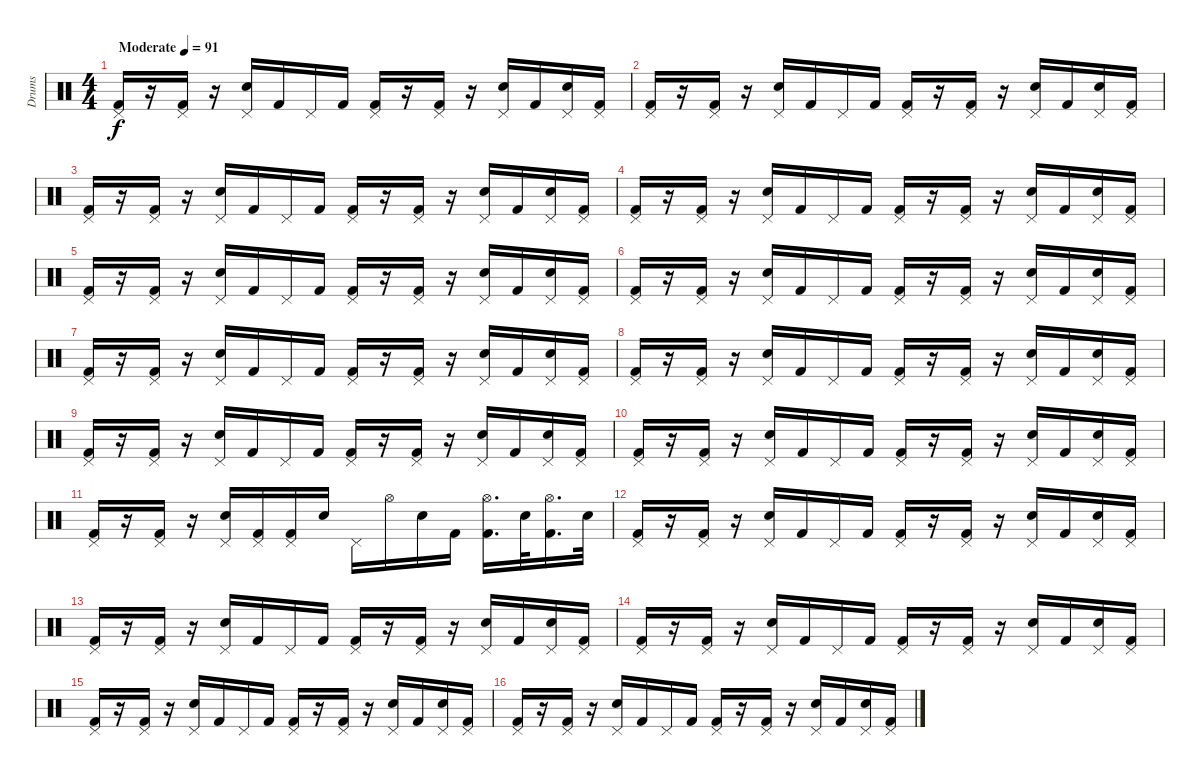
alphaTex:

\track ("Drums" "Drums") {instrument percussion}
\staff {score}
\articulation defaults
\ts (4 4)
\tempo (91 "Moderate")
\clef neutral
\ks c
("Pedal Hi-Hat (hit)" "Kick (hit) 2").16{dy f} r.16 ("Pedal Hi-Hat (hit)" "Kick (hit) 2").16 r.16 ("Pedal Hi-Hat (hit)" "Snare (hit) 2").16 "Kick (hit) 2".16 "Pedal Hi-Hat (hit)".16 "Kick (hit) 2".16 ("Pedal Hi-Hat (hit)" "Kick (hit) 2").16 r.16 ("Pedal Hi-Hat (hit)" "Kick (hit) 2").16 r.16 ("Pedal Hi-Hat (hit)" "Snare (hit) 2").16 "Kick (hit) 2".16 ("Pedal Hi-Hat (hit)" "Snare (hit) 2").16 ("Pedal Hi-Hat (hit)" "Kick (hit) 2").16 |
("Pedal Hi-Hat (hit)" "Kick (hit) 2").16 r.16 ("Pedal Hi-Hat (hit)" "Kick (hit) 2").16 r.16 ("Pedal Hi-Hat (hit)" "Snare (hit) 2").16 "Kick (hit) 2".16 "Pedal Hi-Hat (hit)".16 "Kick (hit) 2".16 ("Pedal Hi-Hat (hit)" "Kick (hit) 2").16 r.16 ("Pedal Hi-Hat (hit)" "Kick (hit) 2").16 r.16 ("Pedal Hi-Hat (hit)" "Snare (hit) 2").16 "Kick (hit) 2".16 ("Pedal Hi-Hat (hit)" "Snare (hit) 2").16 ("Pedal Hi-Hat (hit)" "Kick (hit) 2").16 |
("Pedal Hi-Hat (hit)" "Kick (hit) 2").16 r.16 ("Pedal Hi-Hat (hit)" "Kick (hit) 2").16 r.16 ("Pedal Hi-Hat (hit)" "Snare (hit) 2").16 "Kick (hit) 2".16 "Pedal Hi-Hat (hit)".16 "Kick (hit) 2".16 ("Pedal Hi-Hat (hit)" "Kick (hit) 2").16 r.16 ("Pedal Hi-Hat (hit)" "Kick (hit) 2").16 r.16 ("Pedal Hi-Hat (hit)" "Snare (hit) 2").16 "Kick (hit) 2".16 ("Pedal Hi-Hat (hit)" "Snare (hit) 2").16 ("Pedal Hi-Hat (hit)" "Kick (hit) 2").16 |
("Pedal Hi-Hat (hit)" "Kick (hit) 2").16 r.16 ("Pedal Hi-Hat (hit)" "Kick (hit) 2").16 r.16 ("Pedal Hi-Hat (hit)" "Snare (hit) 2").16 "Kick (hit) 2".16 "Pedal Hi-Hat (hit)".16 "Kick (hit) 2".16 ("Pedal Hi-Hat (hit)" "Kick (hit) 2").16 r.16 ("Pedal Hi-Hat (hit)" "Kick (hit) 2").16 r.16 ("Pedal Hi-Hat (hit)" "Snare (hit) 2").16 "Kick (hit) 2".16 ("Pedal Hi-Hat (hit)" "Snare (hit) 2").16 ("Pedal Hi-Hat (hit)" "Kick (hit) 2").16 |
("Pedal Hi-Hat (hit)" "Kick (hit) 2").16 r.16 ("Pedal Hi-Hat (hit)" "Kick (hit) 2").16 r.16 ("Pedal Hi-Hat (hit)" "Snare (hit) 2").16 "Kick (hit) 2".16 "Pedal Hi-Hat (hit)".16 "Kick (hit) 2".16 ("Pedal Hi-Hat (hit)" "Kick (hit) 2").16 r.16 ("Pedal Hi-Hat (hit)" "Kick (hit) 2").16 r.16 ("Pedal Hi-Hat (hit)" "Snare (hit) 2").16 "Kick (hit) 2".16 ("Pedal Hi-Hat (hit)" "Snare (hit) 2").16 ("Pedal Hi-Hat (hit)" "Kick (hit) 2").16 |
("Pedal Hi-Hat (hit)" "Kick (hit) 2").16 r.16 ("Pedal Hi-Hat (hit)" "Kick (hit) 2").16 r.16 ("Pedal Hi-Hat (hit)" "Snare (hit) 2").16 "Kick (hit) 2".16 "Pedal Hi-Hat (hit)".16 "Kick (hit) 2".16 ("Pedal Hi-Hat (hit)" "Kick (hit) 2").16 r.16 ("Pedal Hi-Hat (hit)" "Kick (hit) 2").16 r.16 ("Pedal Hi-Hat (hit)" "Snare (hit) 2").16 "Kick (hit) 2".16 ("Pedal Hi-Hat (hit)" "Snare (hit) 2").16 ("Pedal Hi-Hat (hit)" "Kick (hit) 2").16 |
("Pedal Hi-Hat (hit)" "Kick (hit) 2").16 r.16 ("Pedal Hi-Hat (hit)" "Kick (hit) 2").16 r.16 ("Pedal Hi-Hat (hit)" "Snare (hit) 2").16 "Kick (hit) 2".16 "Pedal Hi-Hat (hit)".16 "Kick (hit) 2".16 ("Pedal Hi-Hat (hit)" "Kick (hit) 2").16 r.16 ("Pedal Hi-Hat (hit)" "Kick (hit) 2").16 r.16 ("Pedal Hi-Hat (hit)" "Snare (hit) 2").16 "Kick (hit) 2".16 ("Pedal Hi-Hat (hit)" "Snare (hit) 2").16 ("Pedal Hi-Hat (hit)" "Kick (hit) 2").16 |
("Pedal Hi-Hat (hit)" "Kick (hit) 2").16 r.16 ("Pedal Hi-Hat (hit)" "Kick (hit) 2").16 r.16 ("Pedal Hi-Hat (hit)" "Snare (hit) 2").16 "Kick (hit) 2".16 "Pedal Hi-Hat (hit)".16 "Kick (hit) 2".16 ("Pedal Hi-Hat (hit)" "Kick (hit) 2").16 r.16 ("Pedal Hi-Hat (hit)" "Kick (hit) 2").16 r.16 ("Pedal Hi-Hat (hit)" "Snare (hit) 2").16 "Kick (hit) 2".16 ("Pedal Hi-Hat (hit)" "Snare (hit) 2").16 ("Pedal Hi-Hat (hit)" "Kick (hit) 2").16 |
("Pedal Hi-Hat (hit)" "Kick (hit) 2").16 r.16 ("Pedal Hi-Hat (hit)" "Kick (hit) 2").16 r.16 ("Pedal Hi-Hat (hit)" "Snare (hit) 2").16 "Kick (hit) 2".16 "Pedal Hi-Hat (hit)".16 "Kick (hit) 2".16 ("Pedal Hi-Hat (hit)" "Kick (hit) 2").16 r.16 ("Pedal Hi-Hat (hit)" "Kick (hit) 2").16 r.16 ("Pedal Hi-Hat (hit)" "Snare (hit) 2").16 "Kick (hit) 2".16 ("Pedal Hi-Hat (hit)" "Snare (hit) 2").16 ("Pedal Hi-Hat (hit)" "Kick (hit) 2").16 |
("Pedal Hi-Hat (hit)" "Kick (hit) 2").16 r.16 ("Pedal Hi-Hat (hit)" "Kick (hit) 2").16 r.16 ("Pedal Hi-Hat (hit)" "Snare (hit) 2").16 "Kick (hit) 2".16 "Pedal Hi-Hat (hit)".16 "Kick (hit) 2".16 ("Pedal Hi-Hat (hit)" "Kick (hit) 2").16 r.16 ("Pedal Hi-Hat (hit)" "Kick (hit) 2").16 r.16 ("Pedal Hi-Hat (hit)" "Snare (hit) 2").16 "Kick (hit) 2".16 ("Pedal Hi-Hat (hit)" "Snare (hit) 2").16 ("Pedal Hi-Hat (hit)" "Kick (hit) 2").16 |
("Pedal Hi-Hat (hit)" "Kick (hit) 2").16 r.16 ("Pedal Hi-Hat (hit)" "Kick (hit) 2").16 r.16 ("Pedal Hi-Hat (hit)" "Snare (hit) 2").16 ("Pedal Hi-Hat (hit)" "Kick (hit) 2").16 ("Pedal Hi-Hat (hit)" "Kick (hit) 2").16 "Snare (hit) 2".16 "Pedal Hi-Hat (hit)".16 "Hi-Hat (open)".16 "Snare (hit) 2".16 "Kick (hit) 2".16 ("Hi-Hat (open)" "Kick (hit) 2").16{d} "Snare (hit) 2".32 ("Hi-Hat (open)" "Kick (hit) 2").16{d} "Snare (hit) 2".32 |
("Pedal Hi-Hat (hit)" "Kick (hit) 2").16 r.16 ("Pedal Hi-Hat (hit)" "Kick (hit) 2").16 r.16 ("Pedal Hi-Hat (hit)" "Snare (hit) 2").16 "Kick (hit) 2".16 "Pedal Hi-Hat (hit)".16 "Kick (hit) 2".16 ("Pedal Hi-Hat (hit)" "Kick (hit) 2").16 r.16 ("Pedal Hi-Hat (hit)" "Kick (hit) 2").16 r.16 ("Pedal Hi-Hat (hit)" "Snare (hit) 2").16 "Kick (hit) 2".16 ("Pedal Hi-Hat (hit)" "Snare (hit) 2").16 ("Pedal Hi-Hat (hit)" "Kick (hit) 2").16 |
("Pedal Hi-Hat (hit)" "Kick (hit) 2").16 r.16 ("Pedal Hi-Hat (hit)" "Kick (hit) 2").16 r.16 ("Pedal Hi-Hat (hit)" "Snare (hit) 2").16 "Kick (hit) 2".16 "Pedal Hi-Hat (hit)".16 "Kick (hit) 2".16 ("Pedal Hi-Hat (hit)" "Kick (hit) 2").16 r.16 ("Pedal Hi-Hat (hit)" "Kick (hit) 2").16 r.16 ("Pedal Hi-Hat (hit)" "Snare (hit) 2").16 "Kick (hit) 2".16 ("Pedal Hi-Hat (hit)" "Snare (hit) 2").16 ("Pedal Hi-Hat (hit)" "Kick (hit) 2").16 |
("Pedal Hi-Hat (hit)" "Kick (hit) 2").16 r.16 ("Pedal Hi-Hat (hit)" "Kick (hit) 2").16 r.16 ("Pedal Hi-Hat (hit)" "Snare (hit) 2").16 "Kick (hit) 2".16 "Pedal Hi-Hat (hit)".16 "Kick (hit) 2".16 ("Pedal Hi-Hat (hit)" "Kick (hit) 2").16 r.16 ("Pedal Hi-Hat (hit)" "Kick (hit) 2").16 r.16 ("Pedal Hi-Hat (hit)" "Snare (hit) 2").16 "Kick (hit) 2".16 ("Pedal Hi-Hat (hit)" "Snare (hit) 2").16 ("Pedal Hi-Hat (hit)" "Kick (hit) 2").16 |
("Pedal Hi-Hat (hit)" "Kick (hit) 2").16 r.16 ("Pedal Hi-Hat (hit)" "Kick (hit) 2").16 r.16 ("Pedal Hi-Hat (hit)" "Snare (hit) 2").16 "Kick (hit) 2".16 "Pedal Hi-Hat (hit)".16 "Kick (hit) 2".16 ("Pedal Hi-Hat (hit)" "Kick (hit) 2").16 r.16 ("Pedal Hi-Hat (hit)" "Kick (hit) 2").16 r.16 ("Pedal Hi-Hat (hit)" "Snare (hit) 2").16 "Kick (hit) 2".16 ("Pedal Hi-Hat (hit)" "Snare (hit) 2").16 ("Pedal Hi-Hat (hit)" "Kick (hit) 2").16 |
("Pedal Hi-Hat (hit)" "Kick (hit) 2").16 r.16 ("Pedal Hi-Hat (hit)" "Kick (hit) 2").16 r.16 ("Pedal Hi-Hat (hit)" "Snare (hit) 2").16 "Kick (hit) 2".16 "Pedal Hi-Hat (hit)".16 "Kick (hit) 2".16 ("Pedal Hi-Hat (hit)" "Kick (hit) 2").16 r.16 ("Pedal Hi-Hat (hit)" "Kick (hit) 2").16 r.16 ("Pedal Hi-Hat (hit)" "Snare (hit) 2").16 "Kick (hit) 2".16 ("Pedal Hi-Hat (hit)" "Snare (hit) 2").16 ("Pedal Hi-Hat (hit)" "Kick (hit) 2").16
